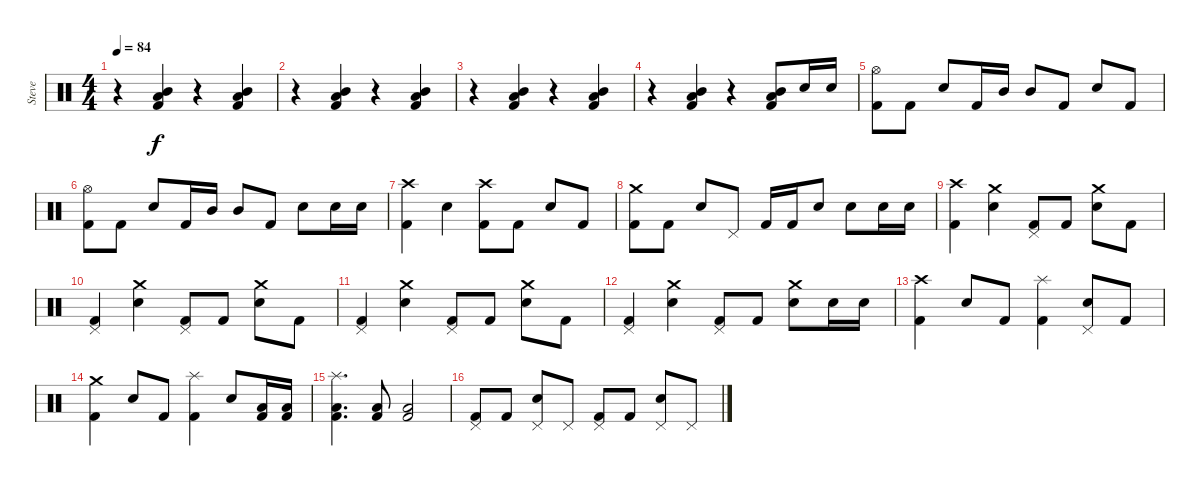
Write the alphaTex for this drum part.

\track ("Steve" "Steve") {instrument percussion}
\staff {score}
\articulation defaults
\ts (4 4)
\tempo 84
\clef neutral
\ks c
r.4{dy f} ("Low Tom (hit)" "Mid Tom (hit)" "Kick (hit) 2").4 r.4 ("Low Tom (hit)" "Mid Tom (hit)" "Kick (hit) 2").4 |
r.4 ("Low Tom (hit)" "Mid Tom (hit)" "Kick (hit) 2").4 r.4 ("Low Tom (hit)" "Mid Tom (hit)" "Kick (hit) 2").4 |
r.4 ("Low Tom (hit)" "Mid Tom (hit)" "Kick (hit) 2").4 r.4 ("Low Tom (hit)" "Mid Tom (hit)" "Kick (hit) 2").4 |
r.4 ("Low Tom (hit)" "Mid Tom (hit)" "Kick (hit) 2").4 r.4 ("Low Tom (hit)" "Mid Tom (hit)" "Kick (hit) 2").8 "Snare (hit) 2".16 "Snare (hit) 2".16 |
("Hi-Hat (open)" "Kick (hit) 2").8 "Kick (hit) 2".8 "Snare (hit) 2".8 "Kick (hit) 2".16 "Mid Tom (hit)".16 "Mid Tom (hit)".8 "Kick (hit) 2".8 "Snare (hit) 2".8 "Kick (hit) 2".8 |
("Hi-Hat (open)" "Kick (hit) 2").8 "Kick (hit) 2".8 "Snare (hit) 2".8 "Kick (hit) 2".16 "Mid Tom (hit)".16 "Mid Tom (hit)".8 "Kick (hit) 2".8 "Snare (hit) 2".8 "Snare (hit) 2".16 "Snare (hit) 2".16 |
("Crash high (hit)" "Kick (hit) 2").4 "Snare (hit) 2".4 ("Crash high (hit)" "Kick (hit) 2").8 "Kick (hit) 2".8 "Snare (hit) 2".8 "Kick (hit) 2".8 |
("Crash medium (hit)" "Kick (hit) 2").8 "Kick (hit) 2".8 "Snare (hit) 2".8 "Pedal Hi-Hat (hit)".8 "Kick (hit) 2".16 "Kick (hit) 2".16 "Snare (hit) 2".8 "Snare (hit) 2".8 "Snare (hit) 2".16 "Snare (hit) 2".16 |
("Crash high (hit)" "Kick (hit) 2").4 ("Crash medium (hit)" "Snare (hit) 2").4 ("Pedal Hi-Hat (hit)" "Kick (hit) 2").8 "Kick (hit) 2".8 ("Crash medium (hit)" "Snare (hit) 2").8 "Kick (hit) 2".8 |
("Pedal Hi-Hat (hit)" "Kick (hit) 2").4 ("Crash medium (hit)" "Snare (hit) 2").4 ("Pedal Hi-Hat (hit)" "Kick (hit) 2").8 "Kick (hit) 2".8 ("Crash medium (hit)" "Snare (hit) 2").8 "Kick (hit) 2".8 |
("Pedal Hi-Hat (hit)" "Kick (hit) 2").4 ("Crash medium (hit)" "Snare (hit) 2").4 ("Pedal Hi-Hat (hit)" "Kick (hit) 2").8 "Kick (hit) 2".8 ("Crash medium (hit)" "Snare (hit) 2").8 "Kick (hit) 2".8 |
("Pedal Hi-Hat (hit)" "Kick (hit) 2").4 ("Crash medium (hit)" "Snare (hit) 2").4 ("Pedal Hi-Hat (hit)" "Kick (hit) 2").8 "Kick (hit) 2".8 ("Crash medium (hit)" "Snare (hit) 2").8 "Snare (hit) 2".16 "Snare (hit) 2".16 |
("Crash high (hit)" "Kick (hit) 2").4 "Snare (hit) 2".8 "Kick (hit) 2".8 ("Splash (hit)" "Kick (hit) 2").4 ("Pedal Hi-Hat (hit)" "Snare (hit) 2").8 "Kick (hit) 2".8 |
("Crash medium (hit)" "Kick (hit) 2").4 "Snare (hit) 2".8 "Kick (hit) 2".8 ("Splash (hit)" "Kick (hit) 2").4 "Snare (hit) 2".8 ("Kick (hit) 2" "Low Tom (hit)").16 ("Kick (hit) 2" "Low Tom (hit)").16 |
("Splash (hit)" "Kick (hit) 2" "Low Tom (hit)").4{d} ("Kick (hit) 2" "Low Tom (hit)").8 ("Kick (hit) 2" "Low Tom (hit)").2 |
("Pedal Hi-Hat (hit)" "Kick (hit) 2").8 "Kick (hit) 2".8 ("Pedal Hi-Hat (hit)" "Snare (hit) 2").8 "Pedal Hi-Hat (hit)".8 ("Pedal Hi-Hat (hit)" "Kick (hit) 2").8 "Kick (hit) 2".8 ("Pedal Hi-Hat (hit)" "Snare (hit) 2").8 "Pedal Hi-Hat (hit)".8
